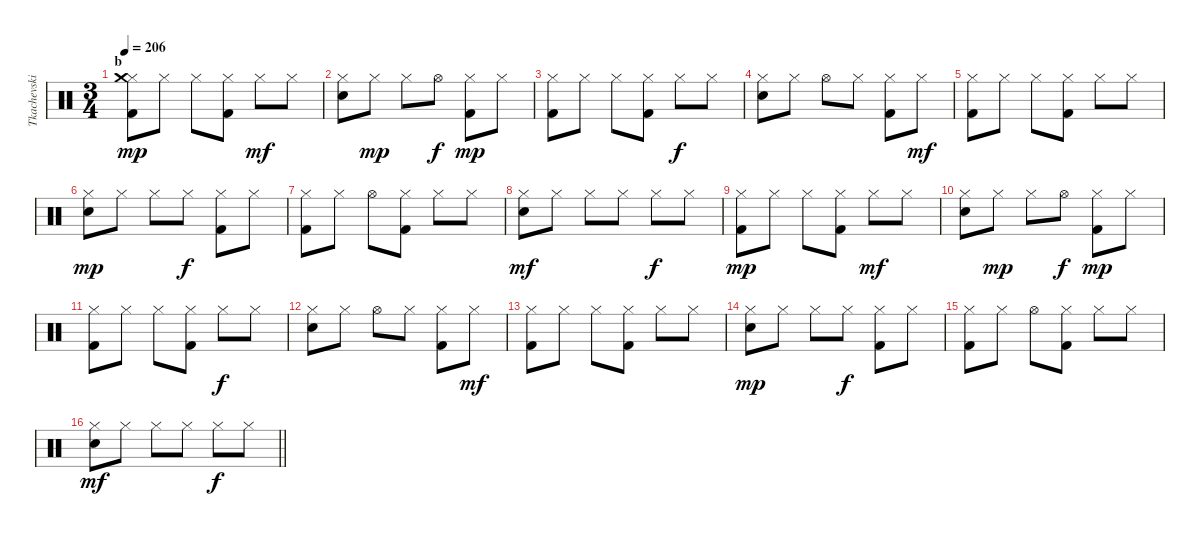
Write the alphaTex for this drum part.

\track ("Tkachevskiy A" "Tkachevski") {instrument percussion}
\staff {score}
\articulation defaults
\ts (3 4)
\section ("" "b")
\tempo 206
\clef neutral
\ks c
("Hi-Hat (closed)" "Crash medium (hit)" "Kick (hit) 2").8{dy mp} "Hi-Hat (closed)".8 "Hi-Hat (closed)".8 ("Hi-Hat (closed)" "Kick (hit) 2").8 "Hi-Hat (closed)".8{dy mf} "Hi-Hat (closed)".8 |
("Hi-Hat (closed)" "Snare (hit) 2").8 "Hi-Hat (closed)".8{dy mp} "Hi-Hat (closed)".8 "Hi-Hat (open)".8{dy f} ("Hi-Hat (closed)" "Kick (hit) 2").8{dy mp} "Hi-Hat (closed)".8 |
("Hi-Hat (closed)" "Kick (hit) 2").8 "Hi-Hat (closed)".8 "Hi-Hat (closed)".8 ("Hi-Hat (closed)" "Kick (hit) 2").8 "Hi-Hat (closed)".8{dy f} "Hi-Hat (closed)".8 |
("Hi-Hat (closed)" "Snare (hit) 2").8 "Hi-Hat (closed)".8 "Hi-Hat (open)".8 "Hi-Hat (closed)".8 ("Hi-Hat (closed)" "Kick (hit) 2").8 "Hi-Hat (closed)".8{dy mf} |
("Hi-Hat (closed)" "Kick (hit) 2").8 "Hi-Hat (closed)".8 "Hi-Hat (closed)".8 ("Hi-Hat (closed)" "Kick (hit) 2").8 "Hi-Hat (closed)".8 "Hi-Hat (closed)".8 |
("Hi-Hat (closed)" "Snare (hit) 2").8{dy mp} "Hi-Hat (closed)".8 "Hi-Hat (closed)".8 "Hi-Hat (closed)".8{dy f} ("Hi-Hat (closed)" "Kick (hit) 2").8 "Hi-Hat (closed)".8 |
("Hi-Hat (closed)" "Kick (hit) 2").8 "Hi-Hat (closed)".8 "Hi-Hat (open)".8 ("Hi-Hat (closed)" "Kick (hit) 2").8 "Hi-Hat (closed)".8 "Hi-Hat (closed)".8 |
("Hi-Hat (closed)" "Snare (hit) 2").8{dy mf} "Hi-Hat (closed)".8 "Hi-Hat (closed)".8 "Hi-Hat (closed)".8 "Hi-Hat (closed)".8{dy f} "Hi-Hat (closed)".8 |
("Hi-Hat (closed)" "Kick (hit) 2").8{dy mp} "Hi-Hat (closed)".8 "Hi-Hat (closed)".8 ("Hi-Hat (closed)" "Kick (hit) 2").8 "Hi-Hat (closed)".8{dy mf} "Hi-Hat (closed)".8 |
("Hi-Hat (closed)" "Snare (hit) 2").8 "Hi-Hat (closed)".8{dy mp} "Hi-Hat (closed)".8 "Hi-Hat (open)".8{dy f} ("Hi-Hat (closed)" "Kick (hit) 2").8{dy mp} "Hi-Hat (closed)".8 |
("Hi-Hat (closed)" "Kick (hit) 2").8 "Hi-Hat (closed)".8 "Hi-Hat (closed)".8 ("Hi-Hat (closed)" "Kick (hit) 2").8 "Hi-Hat (closed)".8{dy f} "Hi-Hat (closed)".8 |
("Hi-Hat (closed)" "Snare (hit) 2").8 "Hi-Hat (closed)".8 "Hi-Hat (open)".8 "Hi-Hat (closed)".8 ("Hi-Hat (closed)" "Kick (hit) 2").8 "Hi-Hat (closed)".8{dy mf} |
("Hi-Hat (closed)" "Kick (hit) 2").8 "Hi-Hat (closed)".8 "Hi-Hat (closed)".8 ("Hi-Hat (closed)" "Kick (hit) 2").8 "Hi-Hat (closed)".8 "Hi-Hat (closed)".8 |
("Hi-Hat (closed)" "Snare (hit) 2").8{dy mp} "Hi-Hat (closed)".8 "Hi-Hat (closed)".8 "Hi-Hat (closed)".8{dy f} ("Hi-Hat (closed)" "Kick (hit) 2").8 "Hi-Hat (closed)".8 |
("Hi-Hat (closed)" "Kick (hit) 2").8 "Hi-Hat (closed)".8 "Hi-Hat (open)".8 ("Hi-Hat (closed)" "Kick (hit) 2").8 "Hi-Hat (closed)".8 "Hi-Hat (closed)".8 |
\barLineRight lightlight
("Hi-Hat (closed)" "Snare (hit) 2").8{dy mf} "Hi-Hat (closed)".8 "Hi-Hat (closed)".8 "Hi-Hat (closed)".8 "Hi-Hat (closed)".8{dy f} "Hi-Hat (closed)".8
